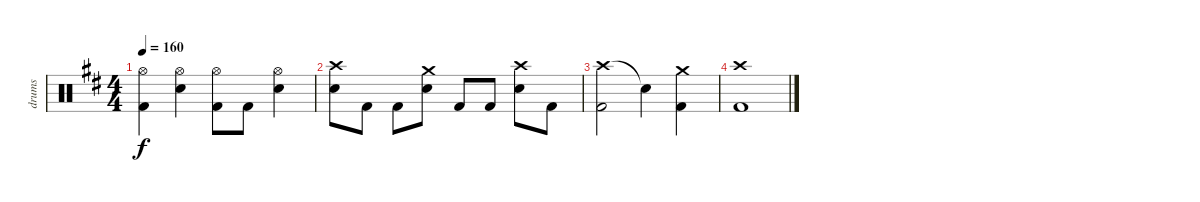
\track ("drums" "drums") {instrument percussion}
\staff {score}
\articulation defaults
\ts (4 4)
\tempo 160
\clef neutral
\ks bminor
("Hi-Hat (open)" "Kick (hit) 2").4{dy f} ("Hi-Hat (open)" "Snare (hit) 2").4 ("Hi-Hat (open)" "Kick (hit) 2").8 "Kick (hit) 2".8 ("Hi-Hat (open)" "Snare (hit) 2").4 |
("Crash high (hit)" "Snare (hit) 2").8 "Kick (hit) 2".8 "Kick (hit) 2".8 ("Crash medium (hit)" "Snare (hit) 2").8 "Kick (hit) 2".8 "Kick (hit) 2".8 ("Crash high (hit)" "Snare (hit) 2").8 "Kick (hit) 2".8 |
("Crash high (hit)" "Kick (hit) 2").2 "Snare (hit)"{t}.4 ("Crash medium (hit)" "Kick (hit) 2").4 |
("Crash high (hit)" "Kick (hit) 2").1
